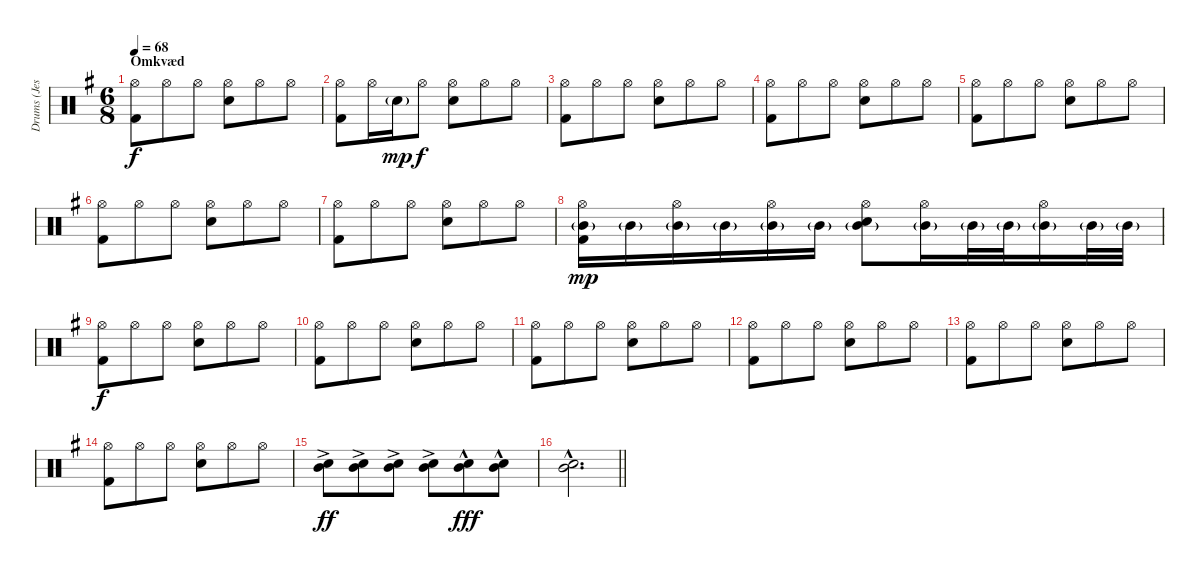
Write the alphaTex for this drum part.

\track ("Drums (Jesper Lind)" "Drums (Jes") {instrument percussion}
\staff {score}
\articulation defaults
\ts (6 8)
\section ("" "Omkvæd")
\tempo 68
\clef neutral
\ks eminor
("Hi-Hat (open)" "Kick (hit) 2").8{dy f} "Hi-Hat (open)".8 "Hi-Hat (open)".8 ("Hi-Hat (open)" "Electric Snare (hit)").8 "Hi-Hat (open)".8 "Hi-Hat (open)".8 |
("Hi-Hat (open)" "Kick (hit) 2").8 "Hi-Hat (open)".16 "Electric Snare (hit)"{g}.16{dy mp} "Hi-Hat (open)".8{dy f} ("Hi-Hat (open)" "Electric Snare (hit)").8 "Hi-Hat (open)".8 "Hi-Hat (open)".8 |
("Hi-Hat (open)" "Kick (hit) 2").8 "Hi-Hat (open)".8 "Hi-Hat (open)".8 ("Hi-Hat (open)" "Electric Snare (hit)").8 "Hi-Hat (open)".8 "Hi-Hat (open)".8 |
("Hi-Hat (open)" "Kick (hit) 2").8 "Hi-Hat (open)".8 "Hi-Hat (open)".8 ("Hi-Hat (open)" "Electric Snare (hit)").8 "Hi-Hat (open)".8 "Hi-Hat (open)".8 |
("Hi-Hat (open)" "Kick (hit) 2").8 "Hi-Hat (open)".8 "Hi-Hat (open)".8 ("Hi-Hat (open)" "Electric Snare (hit)").8 "Hi-Hat (open)".8 "Hi-Hat (open)".8 |
("Hi-Hat (open)" "Kick (hit) 2").8 "Hi-Hat (open)".8 "Hi-Hat (open)".8 ("Hi-Hat (open)" "Electric Snare (hit)").8 "Hi-Hat (open)".8 "Hi-Hat (open)".8 |
("Hi-Hat (open)" "Kick (hit) 2").8 "Hi-Hat (open)".8 "Hi-Hat (open)".8 ("Hi-Hat (open)" "Electric Snare (hit)").8 "Hi-Hat (open)".8 "Hi-Hat (open)".8 |
("Hi-Hat (open)" "Kick (hit) 2" "Mid Tom (hit)"{g}).16{dy mp} "Mid Tom (hit)"{g}.16 ("Hi-Hat (open)" "Mid Tom (hit)"{g}).16 "Mid Tom (hit)"{g}.16 ("Hi-Hat (open)" "Mid Tom (hit)"{g}).16 "Mid Tom (hit)"{g}.16 ("Hi-Hat (open)" "Electric Snare (hit)" "Mid Tom (hit)"{g}).8 ("Hi-Hat (open)" "Mid Tom (hit)"{g}).16 "Mid Tom (hit)"{g}.32 "Mid Tom (hit)"{g}.32 ("Hi-Hat (open)" "Mid Tom (hit)"{g}).16 "Mid Tom (hit)"{g}.32 "Mid Tom (hit)"{g}.32 |
("Hi-Hat (open)" "Kick (hit) 2").8{dy f} "Hi-Hat (open)".8 "Hi-Hat (open)".8 ("Hi-Hat (open)" "Electric Snare (hit)").8 "Hi-Hat (open)".8 "Hi-Hat (open)".8 |
("Hi-Hat (open)" "Kick (hit) 2").8 "Hi-Hat (open)".8 "Hi-Hat (open)".8 ("Hi-Hat (open)" "Electric Snare (hit)").8 "Hi-Hat (open)".8 "Hi-Hat (open)".8 |
("Hi-Hat (open)" "Kick (hit) 2").8 "Hi-Hat (open)".8 "Hi-Hat (open)".8 ("Hi-Hat (open)" "Electric Snare (hit)").8 "Hi-Hat (open)".8 "Hi-Hat (open)".8 |
("Hi-Hat (open)" "Kick (hit) 2").8 "Hi-Hat (open)".8 "Hi-Hat (open)".8 ("Hi-Hat (open)" "Electric Snare (hit)").8 "Hi-Hat (open)".8 "Hi-Hat (open)".8 |
("Hi-Hat (open)" "Kick (hit) 2").8 "Hi-Hat (open)".8 "Hi-Hat (open)".8 ("Hi-Hat (open)" "Electric Snare (hit)").8 "Hi-Hat (open)".8 "Hi-Hat (open)".8 |
("Hi-Hat (open)" "Kick (hit) 2").8 "Hi-Hat (open)".8 "Hi-Hat (open)".8 ("Hi-Hat (open)" "Electric Snare (hit)").8 "Hi-Hat (open)".8 "Hi-Hat (open)".8 |
("Electric Snare (hit)"{ac} "Mid Tom (hit)"{ac}).8{dy ff} ("Electric Snare (hit)"{ac} "Mid Tom (hit)"{ac}).8 ("Electric Snare (hit)"{ac} "Mid Tom (hit)"{ac}).8 ("Electric Snare (hit)"{ac} "Mid Tom (hit)"{ac}).8 ("Electric Snare (hit)"{hac} "Mid Tom (hit)"{hac}).8{dy fff} ("Electric Snare (hit)"{hac} "Mid Tom (hit)"{hac}).8 |
\barLineRight lightlight
("Electric Snare (hit)"{hac} "Mid Tom (hit)"{hac}).2{d}
